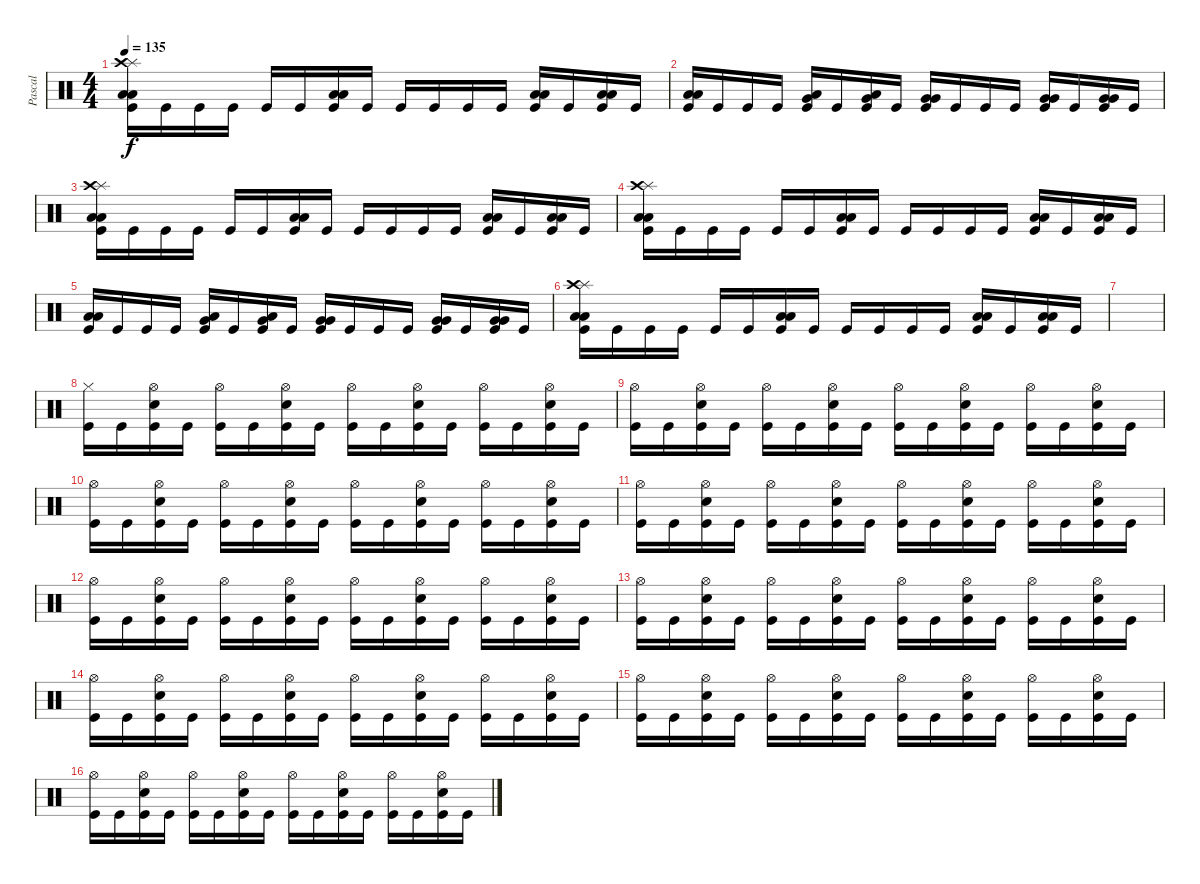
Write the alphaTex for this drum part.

\track ("Pascal" "Pascal") {instrument percussion}
\staff {score}
\articulation defaults
\ts (4 4)
\tempo 135
\clef neutral
\ks c
("Low Floor Tom (hit)" "Kick (hit)" "Splash (hit)" "Low Floor Tom (hit)" "Crash high (hit)").16{dy f} "Kick (hit)".16 "Kick (hit)".16 "Kick (hit)".16 "Kick (hit)".16 "Kick (hit)".16 ("Low Floor Tom (hit)" "Kick (hit)" "Low Floor Tom (hit)").16 "Kick (hit)".16 "Kick (hit)".16 "Kick (hit)".16 "Kick (hit)".16 "Kick (hit)".16 ("Low Floor Tom (hit)" "Kick (hit)" "Low Floor Tom (hit)").16 "Kick (hit)".16 ("Low Floor Tom (hit)" "Kick (hit)" "Low Floor Tom (hit)").16 "Kick (hit)".16 |
("Low Floor Tom (hit)" "Kick (hit)" "Low Floor Tom (hit)").16 "Kick (hit)".16 "Kick (hit)".16 "Kick (hit)".16 ("Low Floor Tom (hit)" "Kick (hit)" "Very Low Tom (hit)").16 "Kick (hit)".16 ("Low Floor Tom (hit)" "Kick (hit)" "Very Low Tom (hit)").16 "Kick (hit)".16 ("Very Low Tom (hit)" "Kick (hit)" "Very Low Tom (hit)").16 "Kick (hit)".16 "Kick (hit)".16 "Kick (hit)".16 ("Very Low Tom (hit)" "Kick (hit)" "Very Low Tom (hit)").16 "Kick (hit)".16 ("Very Low Tom (hit)" "Kick (hit)" "Very Low Tom (hit)").16 "Kick (hit)".16 |
("Low Floor Tom (hit)" "Kick (hit)" "Splash (hit)" "Low Floor Tom (hit)" "Crash high (hit)").16 "Kick (hit)".16 "Kick (hit)".16 "Kick (hit)".16 "Kick (hit)".16 "Kick (hit)".16 ("Low Floor Tom (hit)" "Kick (hit)" "Low Floor Tom (hit)").16 "Kick (hit)".16 "Kick (hit)".16 "Kick (hit)".16 "Kick (hit)".16 "Kick (hit)".16 ("Low Floor Tom (hit)" "Kick (hit)" "Low Floor Tom (hit)").16 "Kick (hit)".16 ("Low Floor Tom (hit)" "Kick (hit)" "Low Floor Tom (hit)").16 "Kick (hit)".16 |
("Low Floor Tom (hit)" "Kick (hit)" "Splash (hit)" "Low Floor Tom (hit)" "Crash high (hit)").16 "Kick (hit)".16 "Kick (hit)".16 "Kick (hit)".16 "Kick (hit)".16 "Kick (hit)".16 ("Low Floor Tom (hit)" "Kick (hit)" "Low Floor Tom (hit)").16 "Kick (hit)".16 "Kick (hit)".16 "Kick (hit)".16 "Kick (hit)".16 "Kick (hit)".16 ("Low Floor Tom (hit)" "Kick (hit)" "Low Floor Tom (hit)").16 "Kick (hit)".16 ("Low Floor Tom (hit)" "Kick (hit)" "Low Floor Tom (hit)").16 "Kick (hit)".16 |
("Low Floor Tom (hit)" "Kick (hit)" "Low Floor Tom (hit)").16 "Kick (hit)".16 "Kick (hit)".16 "Kick (hit)".16 ("Low Floor Tom (hit)" "Kick (hit)" "Very Low Tom (hit)").16 "Kick (hit)".16 ("Low Floor Tom (hit)" "Kick (hit)" "Very Low Tom (hit)").16 "Kick (hit)".16 ("Very Low Tom (hit)" "Kick (hit)" "Very Low Tom (hit)").16 "Kick (hit)".16 "Kick (hit)".16 "Kick (hit)".16 ("Very Low Tom (hit)" "Kick (hit)" "Very Low Tom (hit)").16 "Kick (hit)".16 ("Very Low Tom (hit)" "Kick (hit)" "Very Low Tom (hit)").16 "Kick (hit)".16 |
("Low Floor Tom (hit)" "Kick (hit)" "Splash (hit)" "Low Floor Tom (hit)" "Crash high (hit)").16 "Kick (hit)".16 "Kick (hit)".16 "Kick (hit)".16 "Kick (hit)".16 "Kick (hit)".16 ("Low Floor Tom (hit)" "Kick (hit)" "Low Floor Tom (hit)").16 "Kick (hit)".16 "Kick (hit)".16 "Kick (hit)".16 "Kick (hit)".16 "Kick (hit)".16 ("Low Floor Tom (hit)" "Kick (hit)" "Low Floor Tom (hit)").16 "Kick (hit)".16 ("Low Floor Tom (hit)" "Kick (hit)" "Low Floor Tom (hit)").16 "Kick (hit)".16 |
|
("Kick (hit)" "Hi-Hat (closed)").16 "Kick (hit)".16 ("Electric Snare (hit)" "Kick (hit)" "Hi-Hat (open)").16 "Kick (hit)".16 ("Kick (hit)" "Hi-Hat (open)").16 "Kick (hit)".16 ("Electric Snare (hit)" "Kick (hit)" "Hi-Hat (open)").16 "Kick (hit)".16 ("Kick (hit)" "Hi-Hat (open)").16 "Kick (hit)".16 ("Electric Snare (hit)" "Kick (hit)" "Hi-Hat (open)").16 "Kick (hit)".16 ("Kick (hit)" "Hi-Hat (open)").16 "Kick (hit)".16 ("Electric Snare (hit)" "Kick (hit)" "Hi-Hat (open)").16 "Kick (hit)".16 |
("Kick (hit)" "Hi-Hat (open)").16 "Kick (hit)".16 ("Electric Snare (hit)" "Kick (hit)" "Hi-Hat (open)").16 "Kick (hit)".16 ("Kick (hit)" "Hi-Hat (open)").16 "Kick (hit)".16 ("Electric Snare (hit)" "Kick (hit)" "Hi-Hat (open)").16 "Kick (hit)".16 ("Kick (hit)" "Hi-Hat (open)").16 "Kick (hit)".16 ("Electric Snare (hit)" "Kick (hit)" "Hi-Hat (open)").16 "Kick (hit)".16 ("Kick (hit)" "Hi-Hat (open)").16 "Kick (hit)".16 ("Electric Snare (hit)" "Kick (hit)" "Hi-Hat (open)").16 "Kick (hit)".16 |
("Kick (hit)" "Hi-Hat (open)").16 "Kick (hit)".16 ("Electric Snare (hit)" "Kick (hit)" "Hi-Hat (open)").16 "Kick (hit)".16 ("Kick (hit)" "Hi-Hat (open)").16 "Kick (hit)".16 ("Electric Snare (hit)" "Kick (hit)" "Hi-Hat (open)").16 "Kick (hit)".16 ("Kick (hit)" "Hi-Hat (open)").16 "Kick (hit)".16 ("Electric Snare (hit)" "Kick (hit)" "Hi-Hat (open)").16 "Kick (hit)".16 ("Kick (hit)" "Hi-Hat (open)").16 "Kick (hit)".16 ("Electric Snare (hit)" "Kick (hit)" "Hi-Hat (open)").16 "Kick (hit)".16 |
("Kick (hit)" "Hi-Hat (open)").16 "Kick (hit)".16 ("Electric Snare (hit)" "Kick (hit)" "Hi-Hat (open)").16 "Kick (hit)".16 ("Kick (hit)" "Hi-Hat (open)").16 "Kick (hit)".16 ("Electric Snare (hit)" "Kick (hit)" "Hi-Hat (open)").16 "Kick (hit)".16 ("Kick (hit)" "Hi-Hat (open)").16 "Kick (hit)".16 ("Electric Snare (hit)" "Kick (hit)" "Hi-Hat (open)").16 "Kick (hit)".16 ("Kick (hit)" "Hi-Hat (open)").16 "Kick (hit)".16 ("Electric Snare (hit)" "Kick (hit)" "Hi-Hat (open)").16 "Kick (hit)".16 |
("Kick (hit)" "Hi-Hat (open)").16 "Kick (hit)".16 ("Electric Snare (hit)" "Kick (hit)" "Hi-Hat (open)").16 "Kick (hit)".16 ("Kick (hit)" "Hi-Hat (open)").16 "Kick (hit)".16 ("Electric Snare (hit)" "Kick (hit)" "Hi-Hat (open)").16 "Kick (hit)".16 ("Kick (hit)" "Hi-Hat (open)").16 "Kick (hit)".16 ("Electric Snare (hit)" "Kick (hit)" "Hi-Hat (open)").16 "Kick (hit)".16 ("Kick (hit)" "Hi-Hat (open)").16 "Kick (hit)".16 ("Electric Snare (hit)" "Kick (hit)" "Hi-Hat (open)").16 "Kick (hit)".16 |
("Kick (hit)" "Hi-Hat (open)").16 "Kick (hit)".16 ("Electric Snare (hit)" "Kick (hit)" "Hi-Hat (open)").16 "Kick (hit)".16 ("Kick (hit)" "Hi-Hat (open)").16 "Kick (hit)".16 ("Electric Snare (hit)" "Kick (hit)" "Hi-Hat (open)").16 "Kick (hit)".16 ("Kick (hit)" "Hi-Hat (open)").16 "Kick (hit)".16 ("Electric Snare (hit)" "Kick (hit)" "Hi-Hat (open)").16 "Kick (hit)".16 ("Kick (hit)" "Hi-Hat (open)").16 "Kick (hit)".16 ("Electric Snare (hit)" "Kick (hit)" "Hi-Hat (open)").16 "Kick (hit)".16 |
("Kick (hit)" "Hi-Hat (open)").16 "Kick (hit)".16 ("Electric Snare (hit)" "Kick (hit)" "Hi-Hat (open)").16 "Kick (hit)".16 ("Kick (hit)" "Hi-Hat (open)").16 "Kick (hit)".16 ("Electric Snare (hit)" "Kick (hit)" "Hi-Hat (open)").16 "Kick (hit)".16 ("Kick (hit)" "Hi-Hat (open)").16 "Kick (hit)".16 ("Electric Snare (hit)" "Kick (hit)" "Hi-Hat (open)").16 "Kick (hit)".16 ("Kick (hit)" "Hi-Hat (open)").16 "Kick (hit)".16 ("Electric Snare (hit)" "Kick (hit)" "Hi-Hat (open)").16 "Kick (hit)".16 |
("Kick (hit)" "Hi-Hat (open)").16 "Kick (hit)".16 ("Electric Snare (hit)" "Kick (hit)" "Hi-Hat (open)").16 "Kick (hit)".16 ("Kick (hit)" "Hi-Hat (open)").16 "Kick (hit)".16 ("Electric Snare (hit)" "Kick (hit)" "Hi-Hat (open)").16 "Kick (hit)".16 ("Kick (hit)" "Hi-Hat (open)").16 "Kick (hit)".16 ("Electric Snare (hit)" "Kick (hit)" "Hi-Hat (open)").16 "Kick (hit)".16 ("Kick (hit)" "Hi-Hat (open)").16 "Kick (hit)".16 ("Electric Snare (hit)" "Kick (hit)" "Hi-Hat (open)").16 "Kick (hit)".16 |
("Kick (hit)" "Hi-Hat (open)").16 "Kick (hit)".16 ("Electric Snare (hit)" "Kick (hit)" "Hi-Hat (open)").16 "Kick (hit)".16 ("Kick (hit)" "Hi-Hat (open)").16 "Kick (hit)".16 ("Electric Snare (hit)" "Kick (hit)" "Hi-Hat (open)").16 "Kick (hit)".16 ("Kick (hit)" "Hi-Hat (open)").16 "Kick (hit)".16 ("Electric Snare (hit)" "Kick (hit)" "Hi-Hat (open)").16 "Kick (hit)".16 ("Kick (hit)" "Hi-Hat (open)").16 "Kick (hit)".16 ("Electric Snare (hit)" "Kick (hit)" "Hi-Hat (open)").16 "Kick (hit)".16
